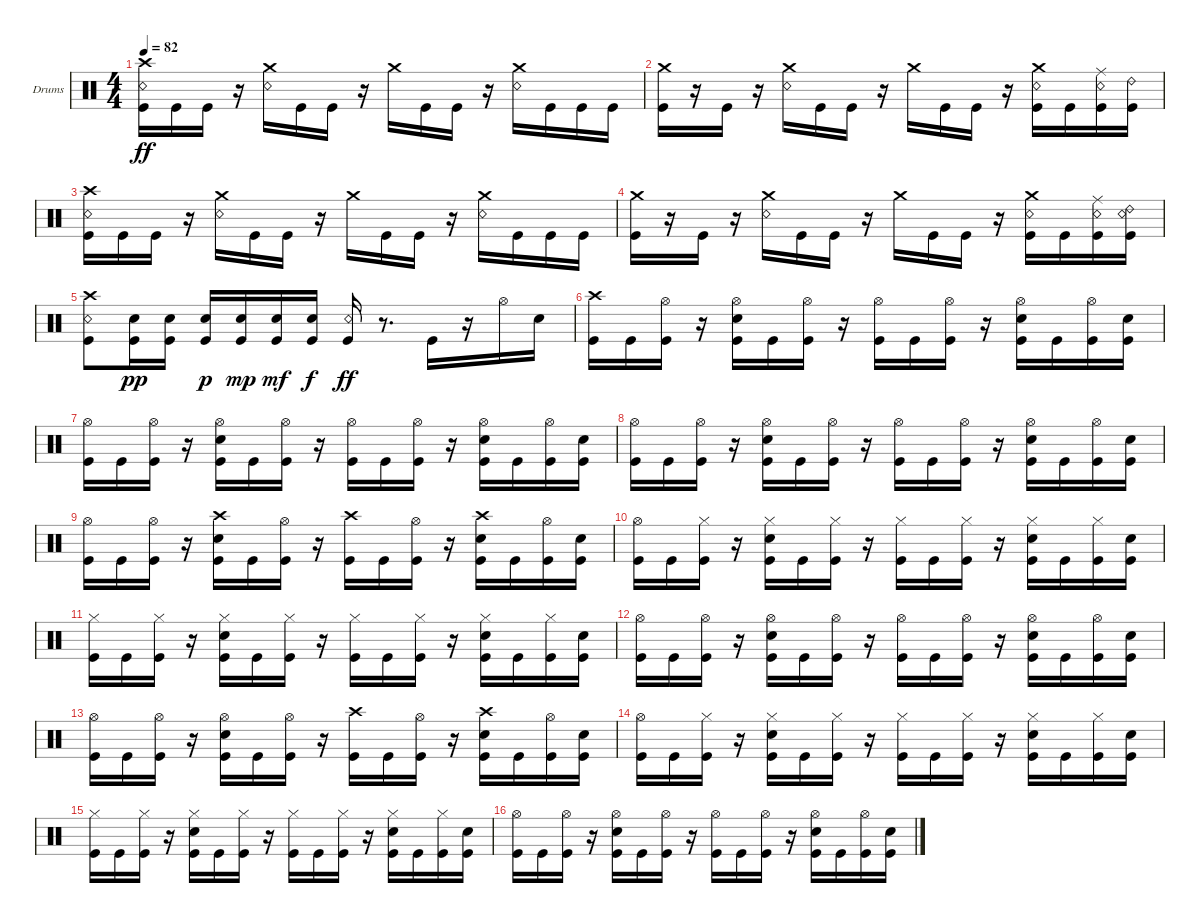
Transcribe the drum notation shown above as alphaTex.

\bracketExtendMode groupsimilarinstruments
\firstSystemTrackNameOrientation horizontal
\otherSystemsTrackNameOrientation horizontal
\track ("Drumkit" "Drums") {instrument percussion}
\staff {score}
\articulation defaults
\ts (4 4)
\tempo 82
\clef neutral
\ks c
("Crash high (hit)" "Snare (rim shot)" "Kick (hit)").16{dy ff} "Kick (hit)".16 "Kick (hit)".16 r.16 ("Snare (rim shot)" "Crash medium (hit)").16 "Kick (hit)".16 "Kick (hit)".16 r.16 "Crash medium (hit)".16 "Kick (hit)".16 "Kick (hit)".16 r.16 ("Snare (rim shot)" "Crash medium (hit)").16 "Kick (hit)".16 "Kick (hit)".16 "Kick (hit)".16 |
("Kick (hit)" "Crash medium (hit)").16 r.16 "Kick (hit)".16 r.16 ("Snare (rim shot)" "Crash medium (hit)").16 "Kick (hit)".16 "Kick (hit)".16 r.16 "Crash medium (hit)".16 "Kick (hit)".16 "Kick (hit)".16 r.16 ("Kick (hit)" "Snare (rim shot)" "Crash medium (hit)").16 "Kick (hit)".16 ("Kick (hit)" "Snare (rim shot)" "Ride (middle)").16 ("Kick (hit)" "Ride (bell) 2").16 |
("Snare (rim shot)" "Kick (hit)" "Crash high (hit)").16 "Kick (hit)".16 "Kick (hit)".16 r.16 ("Snare (rim shot)" "Crash medium (hit)").16 "Kick (hit)".16 "Kick (hit)".16 r.16 "Crash medium (hit)".16 "Kick (hit)".16 "Kick (hit)".16 r.16 ("Snare (rim shot)" "Crash medium (hit)").16 "Kick (hit)".16 "Kick (hit)".16 "Kick (hit)".16 |
("Kick (hit)" "Crash medium (hit)").16 r.16 "Kick (hit)".16 r.16 ("Snare (rim shot)" "Crash medium (hit)").16 "Kick (hit)".16 "Kick (hit)".16 r.16 "Crash medium (hit)".16 "Kick (hit)".16 "Kick (hit)".16 r.16 ("Kick (hit)" "Snare (rim shot)" "Crash medium (hit)").16 "Kick (hit)".16 ("Kick (hit)" "Snare (rim shot)" "Ride (middle)").16 ("Kick (hit)" "Snare (rim shot)" "Ride (bell) 2").16 |
("Kick (hit)" "Snare (rim shot)" "Crash high (hit)").8 ("Snare (hit) 2" "Kick (hit)").16{dy pp} ("Kick (hit)" "Snare (hit) 2").16 ("Kick (hit)" "Snare (hit) 2").16{dy p} ("Kick (hit)" "Snare (hit) 2").16{dy mp} ("Kick (hit)" "Snare (hit) 2").16{dy mf} ("Kick (hit)" "Snare (hit) 2").16{dy f} ("Kick (hit)" "Snare (rim shot)").16{dy ff} r.8{d} "Kick (hit)".16 r.16 "Hi-Hat (open)".16 "Snare (hit) 2".16 |
("Kick (hit)" "Crash high (hit)").16 "Kick (hit)".16 ("Kick (hit)" "Hi-Hat (open)").16 r.16 ("Kick (hit)" "Snare (hit) 2" "Hi-Hat (open)").16 "Kick (hit)".16 ("Kick (hit)" "Hi-Hat (open)").16 r.16 ("Kick (hit)" "Hi-Hat (open)").16 "Kick (hit)".16 ("Kick (hit)" "Hi-Hat (open)").16 r.16 ("Kick (hit)" "Snare (hit) 2" "Hi-Hat (open)").16 "Kick (hit)".16 ("Kick (hit)" "Hi-Hat (open)").16 ("Kick (hit)" "Snare (hit) 2").16 |
("Kick (hit)" "Hi-Hat (open)").16 "Kick (hit)".16 ("Kick (hit)" "Hi-Hat (open)").16 r.16 ("Kick (hit)" "Snare (hit) 2" "Hi-Hat (open)").16 "Kick (hit)".16 ("Kick (hit)" "Hi-Hat (open)").16 r.16 ("Kick (hit)" "Hi-Hat (open)").16 "Kick (hit)".16 ("Kick (hit)" "Hi-Hat (open)").16 r.16 ("Kick (hit)" "Snare (hit) 2" "Hi-Hat (open)").16 "Kick (hit)".16 ("Kick (hit)" "Hi-Hat (open)").16 ("Kick (hit)" "Snare (hit) 2").16 |
("Kick (hit)" "Hi-Hat (open)").16 "Kick (hit)".16 ("Kick (hit)" "Hi-Hat (open)").16 r.16 ("Kick (hit)" "Snare (hit) 2" "Hi-Hat (open)").16 "Kick (hit)".16 ("Kick (hit)" "Hi-Hat (open)").16 r.16 ("Kick (hit)" "Hi-Hat (open)").16 "Kick (hit)".16 ("Kick (hit)" "Hi-Hat (open)").16 r.16 ("Kick (hit)" "Snare (hit) 2" "Hi-Hat (open)").16 "Kick (hit)".16 ("Kick (hit)" "Hi-Hat (open)").16 ("Kick (hit)" "Snare (hit) 2").16 |
("Kick (hit)" "Hi-Hat (open)").16 "Kick (hit)".16 ("Kick (hit)" "Hi-Hat (open)").16 r.16 ("Kick (hit)" "Snare (hit) 2" "Crash high (hit)").16 "Kick (hit)".16 ("Kick (hit)" "Hi-Hat (open)").16 r.16 ("Kick (hit)" "Crash high (hit)").16 "Kick (hit)".16 ("Kick (hit)" "Hi-Hat (open)").16 r.16 ("Kick (hit)" "Snare (hit) 2" "Crash high (hit)").16 "Kick (hit)".16 ("Kick (hit)" "Hi-Hat (open)").16 ("Kick (hit)" "Snare (hit) 2").16 |
("Kick (hit)" "Hi-Hat (open)").16 "Kick (hit)".16 ("Kick (hit)" "Hi-Hat (closed)").16 r.16 ("Kick (hit)" "Snare (hit) 2" "Hi-Hat (closed)").16 "Kick (hit)".16 ("Kick (hit)" "Hi-Hat (closed)").16 r.16 ("Kick (hit)" "Hi-Hat (closed)").16 "Kick (hit)".16 ("Kick (hit)" "Hi-Hat (closed)").16 r.16 ("Kick (hit)" "Snare (hit) 2" "Hi-Hat (closed)").16 "Kick (hit)".16 ("Kick (hit)" "Hi-Hat (closed)").16 ("Kick (hit)" "Snare (hit) 2").16 |
("Kick (hit)" "Hi-Hat (closed)").16 "Kick (hit)".16 ("Kick (hit)" "Hi-Hat (closed)").16 r.16 ("Kick (hit)" "Snare (hit) 2" "Hi-Hat (closed)").16 "Kick (hit)".16 ("Kick (hit)" "Hi-Hat (closed)").16 r.16 ("Kick (hit)" "Hi-Hat (closed)").16 "Kick (hit)".16 ("Kick (hit)" "Hi-Hat (closed)").16 r.16 ("Kick (hit)" "Snare (hit) 2" "Hi-Hat (closed)").16 "Kick (hit)".16 ("Kick (hit)" "Hi-Hat (closed)").16 ("Kick (hit)" "Snare (hit) 2").16 |
("Kick (hit)" "Hi-Hat (open)").16 "Kick (hit)".16 ("Kick (hit)" "Hi-Hat (open)").16 r.16 ("Kick (hit)" "Snare (hit) 2" "Hi-Hat (open)").16 "Kick (hit)".16 ("Kick (hit)" "Hi-Hat (open)").16 r.16 ("Kick (hit)" "Hi-Hat (open)").16 "Kick (hit)".16 ("Kick (hit)" "Hi-Hat (open)").16 r.16 ("Kick (hit)" "Snare (hit) 2" "Hi-Hat (open)").16 "Kick (hit)".16 ("Kick (hit)" "Hi-Hat (open)").16 ("Kick (hit)" "Snare (hit) 2").16 |
("Kick (hit)" "Hi-Hat (open)").16 "Kick (hit)".16 ("Kick (hit)" "Hi-Hat (open)").16 r.16 ("Kick (hit)" "Snare (hit) 2" "Hi-Hat (open)").16 "Kick (hit)".16 ("Kick (hit)" "Hi-Hat (open)").16 r.16 ("Kick (hit)" "Crash high (hit)").16 "Kick (hit)".16 ("Kick (hit)" "Hi-Hat (open)").16 r.16 ("Kick (hit)" "Snare (hit) 2" "Crash high (hit)").16 "Kick (hit)".16 ("Kick (hit)" "Hi-Hat (open)").16 ("Kick (hit)" "Snare (hit) 2").16 |
("Kick (hit)" "Hi-Hat (open)").16 "Kick (hit)".16 ("Kick (hit)" "Hi-Hat (closed)").16 r.16 ("Kick (hit)" "Snare (hit) 2" "Hi-Hat (closed)").16 "Kick (hit)".16 ("Kick (hit)" "Hi-Hat (closed)").16 r.16 ("Kick (hit)" "Hi-Hat (closed)").16 "Kick (hit)".16 ("Kick (hit)" "Hi-Hat (closed)").16 r.16 ("Kick (hit)" "Snare (hit) 2" "Hi-Hat (closed)").16 "Kick (hit)".16 ("Kick (hit)" "Hi-Hat (closed)").16 ("Kick (hit)" "Snare (hit) 2").16 |
("Kick (hit)" "Hi-Hat (closed)").16 "Kick (hit)".16 ("Kick (hit)" "Hi-Hat (closed)").16 r.16 ("Kick (hit)" "Snare (hit) 2" "Hi-Hat (closed)").16 "Kick (hit)".16 ("Kick (hit)" "Hi-Hat (closed)").16 r.16 ("Kick (hit)" "Hi-Hat (closed)").16 "Kick (hit)".16 ("Kick (hit)" "Hi-Hat (closed)").16 r.16 ("Kick (hit)" "Snare (hit) 2" "Hi-Hat (closed)").16 "Kick (hit)".16 ("Kick (hit)" "Hi-Hat (closed)").16 ("Kick (hit)" "Snare (hit) 2").16 |
("Kick (hit)" "Hi-Hat (open)").16 "Kick (hit)".16 ("Kick (hit)" "Hi-Hat (open)").16 r.16 ("Kick (hit)" "Snare (hit) 2" "Hi-Hat (open)").16 "Kick (hit)".16 ("Kick (hit)" "Hi-Hat (open)").16 r.16 ("Kick (hit)" "Hi-Hat (open)").16 "Kick (hit)".16 ("Kick (hit)" "Hi-Hat (open)").16 r.16 ("Kick (hit)" "Snare (hit) 2" "Hi-Hat (open)").16 "Kick (hit)".16 ("Kick (hit)" "Hi-Hat (open)").16 ("Kick (hit)" "Snare (hit) 2").16
